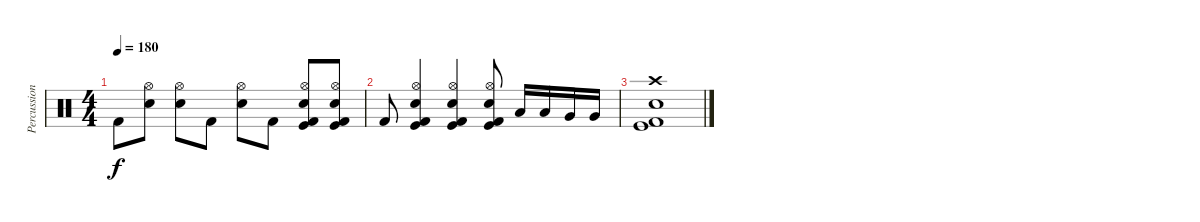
\track ("Percussion" "Percussion") {instrument percussion}
\staff {score}
\articulation defaults
\ts (4 4)
\tempo 180
\clef neutral
\ks c "Kick (hit) 2".8{dy f}
("Hi-Hat (open)" "Snare (hit) 2").8 ("Hi-Hat (open)" "Snare (hit) 2").8 "Kick (hit) 2".8 ("Hi-Hat (open)" "Snare (hit) 2").8 "Kick (hit) 2".8 ("Hi-Hat (open)" "Snare (hit) 2" "Kick (hit)" "Kick (hit) 2").8 ("Hi-Hat (open)" "Snare (hit) 2" "Kick (hit)" "Kick (hit) 2").8 |
"Kick (hit) 2".8 ("Hi-Hat (open)" "Snare (hit) 2" "Kick (hit)" "Kick (hit) 2").4 ("Hi-Hat (open)" "Snare (hit) 2" "Kick (hit)" "Kick (hit) 2").4 ("Hi-Hat (open)" "Snare (hit) 2" "Kick (hit)" "Kick (hit) 2").8 "Low Tom (hit)".16 "Low Tom (hit)".16 "Very Low Tom (hit)".16 "Very Low Tom (hit)".16 |
("Crash high (hit)" "Snare (hit) 2" "Kick (hit)" "Kick (hit) 2").1
